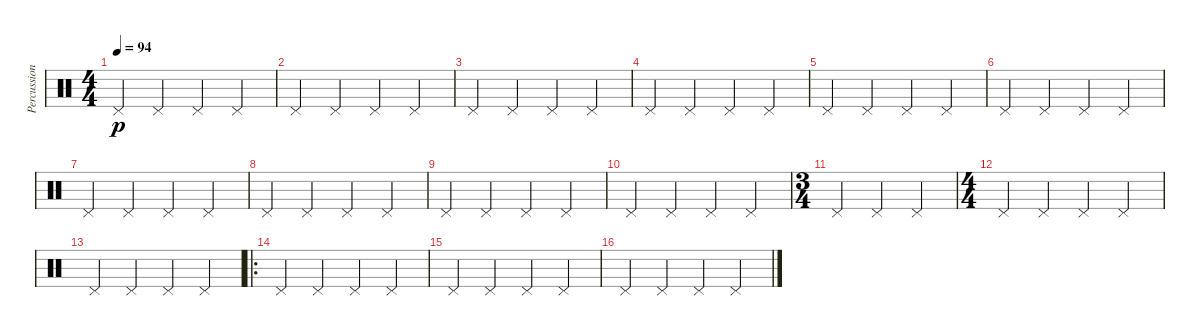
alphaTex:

\track ("Percussions" "Percussion") {instrument percussion}
\staff {score}
\articulation defaults
\ts (4 4)
\tempo 94
\clef neutral
\ks c "Pedal Hi-Hat (hit)".4{dy p} "Pedal Hi-Hat (hit)".4 "Pedal Hi-Hat (hit)".4 "Pedal Hi-Hat (hit)".4
|
"Pedal Hi-Hat (hit)".4 "Pedal Hi-Hat (hit)".4 "Pedal Hi-Hat (hit)".4 "Pedal Hi-Hat (hit)".4 |
"Pedal Hi-Hat (hit)".4 "Pedal Hi-Hat (hit)".4 "Pedal Hi-Hat (hit)".4 "Pedal Hi-Hat (hit)".4 |
"Pedal Hi-Hat (hit)".4 "Pedal Hi-Hat (hit)".4 "Pedal Hi-Hat (hit)".4 "Pedal Hi-Hat (hit)".4 |
"Pedal Hi-Hat (hit)".4 "Pedal Hi-Hat (hit)".4 "Pedal Hi-Hat (hit)".4 "Pedal Hi-Hat (hit)".4 |
"Pedal Hi-Hat (hit)".4 "Pedal Hi-Hat (hit)".4 "Pedal Hi-Hat (hit)".4 "Pedal Hi-Hat (hit)".4 |
"Pedal Hi-Hat (hit)".4 "Pedal Hi-Hat (hit)".4 "Pedal Hi-Hat (hit)".4 "Pedal Hi-Hat (hit)".4 |
"Pedal Hi-Hat (hit)".4 "Pedal Hi-Hat (hit)".4 "Pedal Hi-Hat (hit)".4 "Pedal Hi-Hat (hit)".4 |
"Pedal Hi-Hat (hit)".4 "Pedal Hi-Hat (hit)".4 "Pedal Hi-Hat (hit)".4 "Pedal Hi-Hat (hit)".4 |
"Pedal Hi-Hat (hit)".4 "Pedal Hi-Hat (hit)".4 "Pedal Hi-Hat (hit)".4 "Pedal Hi-Hat (hit)".4 |
\ts (3 4)
"Pedal Hi-Hat (hit)".4 "Pedal Hi-Hat (hit)".4 "Pedal Hi-Hat (hit)".4 |
\ts (4 4)
"Pedal Hi-Hat (hit)".4 "Pedal Hi-Hat (hit)".4 "Pedal Hi-Hat (hit)".4 "Pedal Hi-Hat (hit)".4 |
"Pedal Hi-Hat (hit)".4 "Pedal Hi-Hat (hit)".4 "Pedal Hi-Hat (hit)".4 "Pedal Hi-Hat (hit)".4 |
\ro "Pedal Hi-Hat (hit)".4 "Pedal Hi-Hat (hit)".4 "Pedal Hi-Hat (hit)".4 "Pedal Hi-Hat (hit)".4
|
"Pedal Hi-Hat (hit)".4 "Pedal Hi-Hat (hit)".4 "Pedal Hi-Hat (hit)".4 "Pedal Hi-Hat (hit)".4 |
"Pedal Hi-Hat (hit)".4 "Pedal Hi-Hat (hit)".4 "Pedal Hi-Hat (hit)".4 "Pedal Hi-Hat (hit)".4
